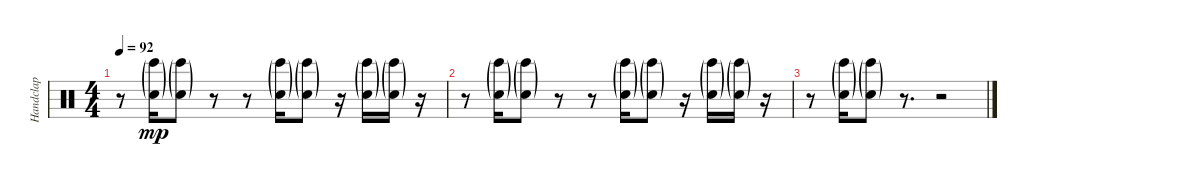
\track ("Handclap" "Handclap") {instrument percussion}
\staff {score}
\articulation defaults
\ts (4 4)
\tempo 92
\clef neutral
\ks c
r.8{dy mp} ("Hand Clap (hit)"{g} "Bongo High (hit)"{g}).16 ("Hand Clap (hit)"{g} "Bongo High (hit)"{g}).8 r.8 r.8 ("Hand Clap (hit)"{g} "Bongo High (hit)"{g}).16 ("Hand Clap (hit)"{g} "Bongo High (hit)"{g}).8 r.16 ("Hand Clap (hit)"{g} "Bongo High (hit)"{g}).16 ("Hand Clap (hit)"{g} "Bongo High (hit)"{g}).16 r.16 |
r.8 ("Hand Clap (hit)"{g} "Bongo High (hit)"{g}).16 ("Hand Clap (hit)"{g} "Bongo High (hit)"{g}).8 r.8 r.8 ("Hand Clap (hit)"{g} "Bongo High (hit)"{g}).16 ("Hand Clap (hit)"{g} "Bongo High (hit)"{g}).8 r.16 ("Hand Clap (hit)"{g} "Bongo High (hit)"{g}).16 ("Hand Clap (hit)"{g} "Bongo High (hit)"{g}).16 r.16 |
r.8 ("Hand Clap (hit)"{g} "Bongo High (hit)"{g}).16 ("Hand Clap (hit)"{g} "Bongo High (hit)"{g}).8 r.8{d} r.2
